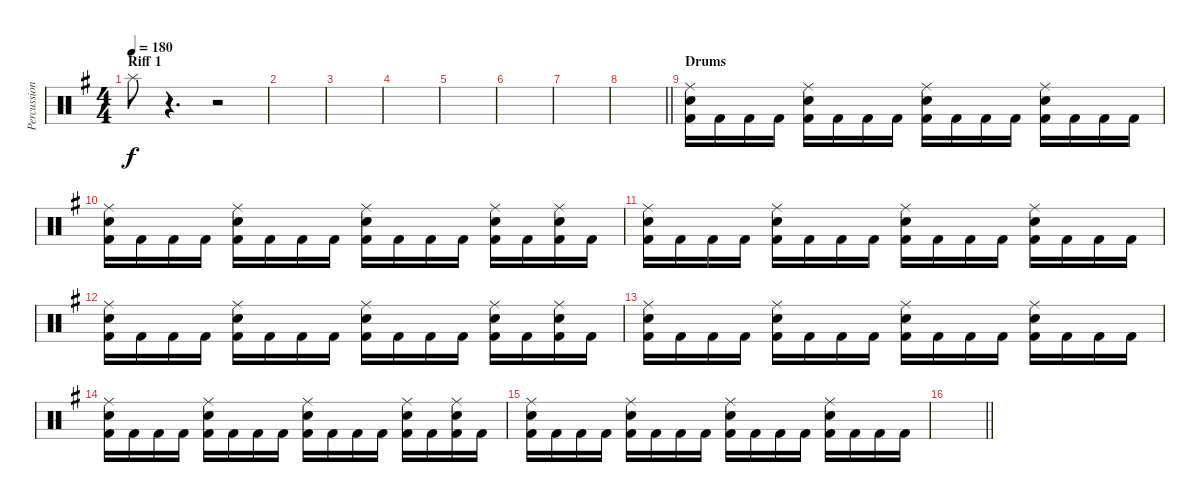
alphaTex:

\track ("Percussion" "Percussion") {instrument percussion}
\staff {score}
\articulation defaults
\ts (4 4)
\section ("" "Riff 1")
\tempo 180
\clef neutral
\ks g "Splash (hit)".8{dy f}
r.4{d} r.2 |
|
|
|
|
|
|
\barLineRight lightlight
|
\section ("" "Drums")
("Kick (hit) 2" "Electric Snare (hit)" "Ride (middle)").16 "Kick (hit) 2".16 "Kick (hit) 2".16 "Kick (hit) 2".16 ("Kick (hit) 2" "Electric Snare (hit)" "Ride (middle)").16 "Kick (hit) 2".16 "Kick (hit) 2".16 "Kick (hit) 2".16 ("Kick (hit) 2" "Electric Snare (hit)" "Ride (middle)").16 "Kick (hit) 2".16 "Kick (hit) 2".16 "Kick (hit) 2".16 ("Kick (hit) 2" "Electric Snare (hit)" "Ride (middle)").16 "Kick (hit) 2".16 "Kick (hit) 2".16 "Kick (hit) 2".16 |
("Kick (hit) 2" "Electric Snare (hit)" "Ride (middle)").16 "Kick (hit) 2".16 "Kick (hit) 2".16 "Kick (hit) 2".16 ("Kick (hit) 2" "Electric Snare (hit)" "Ride (middle)").16 "Kick (hit) 2".16 "Kick (hit) 2".16 "Kick (hit) 2".16 ("Kick (hit) 2" "Electric Snare (hit)" "Ride (middle)").16 "Kick (hit) 2".16 "Kick (hit) 2".16 "Kick (hit) 2".16 ("Kick (hit) 2" "Electric Snare (hit)" "Ride (middle)").16 "Kick (hit) 2".16 ("Kick (hit) 2" "Electric Snare (hit)" "Ride (middle)").16 "Kick (hit) 2".16 |
("Kick (hit) 2" "Electric Snare (hit)" "Ride (middle)").16 "Kick (hit) 2".16 "Kick (hit) 2".16 "Kick (hit) 2".16 ("Kick (hit) 2" "Electric Snare (hit)" "Ride (middle)").16 "Kick (hit) 2".16 "Kick (hit) 2".16 "Kick (hit) 2".16 ("Kick (hit) 2" "Electric Snare (hit)" "Ride (middle)").16 "Kick (hit) 2".16 "Kick (hit) 2".16 "Kick (hit) 2".16 ("Kick (hit) 2" "Electric Snare (hit)" "Ride (middle)").16 "Kick (hit) 2".16 "Kick (hit) 2".16 "Kick (hit) 2".16 |
("Kick (hit) 2" "Electric Snare (hit)" "Ride (middle)").16 "Kick (hit) 2".16 "Kick (hit) 2".16 "Kick (hit) 2".16 ("Kick (hit) 2" "Electric Snare (hit)" "Ride (middle)").16 "Kick (hit) 2".16 "Kick (hit) 2".16 "Kick (hit) 2".16 ("Kick (hit) 2" "Electric Snare (hit)" "Ride (middle)").16 "Kick (hit) 2".16 "Kick (hit) 2".16 "Kick (hit) 2".16 ("Kick (hit) 2" "Electric Snare (hit)" "Ride (middle)").16 "Kick (hit) 2".16 ("Kick (hit) 2" "Electric Snare (hit)" "Ride (middle)").16 "Kick (hit) 2".16 |
("Kick (hit) 2" "Electric Snare (hit)" "Ride (middle)").16 "Kick (hit) 2".16 "Kick (hit) 2".16 "Kick (hit) 2".16 ("Kick (hit) 2" "Electric Snare (hit)" "Ride (middle)").16 "Kick (hit) 2".16 "Kick (hit) 2".16 "Kick (hit) 2".16 ("Kick (hit) 2" "Electric Snare (hit)" "Ride (middle)").16 "Kick (hit) 2".16 "Kick (hit) 2".16 "Kick (hit) 2".16 ("Kick (hit) 2" "Electric Snare (hit)" "Ride (middle)").16 "Kick (hit) 2".16 "Kick (hit) 2".16 "Kick (hit) 2".16 |
("Kick (hit) 2" "Electric Snare (hit)" "Ride (middle)").16 "Kick (hit) 2".16 "Kick (hit) 2".16 "Kick (hit) 2".16 ("Kick (hit) 2" "Electric Snare (hit)" "Ride (middle)").16 "Kick (hit) 2".16 "Kick (hit) 2".16 "Kick (hit) 2".16 ("Kick (hit) 2" "Electric Snare (hit)" "Ride (middle)").16 "Kick (hit) 2".16 "Kick (hit) 2".16 "Kick (hit) 2".16 ("Kick (hit) 2" "Electric Snare (hit)" "Ride (middle)").16 "Kick (hit) 2".16 ("Kick (hit) 2" "Electric Snare (hit)" "Ride (middle)").16 "Kick (hit) 2".16 |
("Kick (hit) 2" "Electric Snare (hit)" "Ride (middle)").16 "Kick (hit) 2".16 "Kick (hit) 2".16 "Kick (hit) 2".16 ("Kick (hit) 2" "Electric Snare (hit)" "Ride (middle)").16 "Kick (hit) 2".16 "Kick (hit) 2".16 "Kick (hit) 2".16 ("Kick (hit) 2" "Electric Snare (hit)" "Ride (middle)").16 "Kick (hit) 2".16 "Kick (hit) 2".16 "Kick (hit) 2".16 ("Kick (hit) 2" "Electric Snare (hit)" "Ride (middle)").16 "Kick (hit) 2".16 "Kick (hit) 2".16 "Kick (hit) 2".16 |
\barLineRight lightlight
